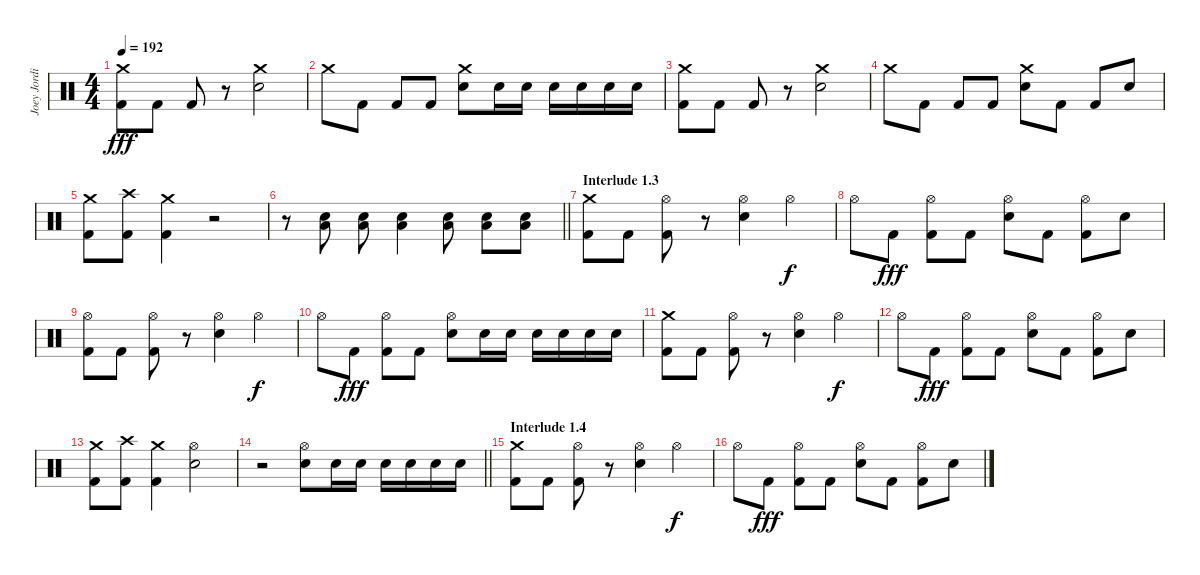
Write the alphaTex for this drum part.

\track ("Joey Jordison" "Joey Jordi") {instrument percussion}
\staff {score}
\articulation defaults
\ts (4 4)
\tempo 192
\clef neutral
\ks c
("Crash medium (hit)" "Kick (hit) 2").8{dy fff} "Kick (hit) 2".8 "Kick (hit) 2".8 r.8 ("Crash medium (hit)" "Electric Snare (hit)").2 |
"Crash medium (hit)".8 "Kick (hit) 2".8 "Kick (hit) 2".8 "Kick (hit) 2".8 ("Crash medium (hit)" "Electric Snare (hit)").8 "Electric Snare (hit)".16 "Electric Snare (hit)".16 "Electric Snare (hit)".16 "Electric Snare (hit)".16 "Electric Snare (hit)".16 "Electric Snare (hit)".16 |
("Crash medium (hit)" "Kick (hit) 2").8 "Kick (hit) 2".8 "Kick (hit) 2".8 r.8 ("Crash medium (hit)" "Electric Snare (hit)").2 |
"Crash medium (hit)".8 "Kick (hit) 2".8 "Kick (hit) 2".8 "Kick (hit) 2".8 ("Crash medium (hit)" "Electric Snare (hit)").8 "Kick (hit) 2".8 "Kick (hit) 2".8 "Electric Snare (hit)".8 |
("Crash medium (hit)" "Kick (hit) 2").8 ("Crash high (hit)" "Kick (hit) 2").8 ("Crash medium (hit)" "Kick (hit) 2").4 r.2 |
\barLineRight lightlight
r.8 ("Electric Snare (hit)" "Low Floor Tom (hit)").8 ("Electric Snare (hit)" "Low Floor Tom (hit)").8 ("Electric Snare (hit)" "Low Floor Tom (hit)").4 ("Electric Snare (hit)" "Low Floor Tom (hit)").8 ("Electric Snare (hit)" "Low Floor Tom (hit)").8 ("Electric Snare (hit)" "Low Floor Tom (hit)").8 |
\section ("" "Interlude 1.3")
("Crash medium (hit)" "Kick (hit) 2").8 "Kick (hit) 2".8 ("Hi-Hat (open)" "Kick (hit) 2").8 r.8 ("Hi-Hat (open)" "Electric Snare (hit)").4 "Hi-Hat (open)".4{dy f} |
"Hi-Hat (open)".8 "Kick (hit) 2".8{dy fff} ("Hi-Hat (open)" "Kick (hit) 2").8 "Kick (hit) 2".8 ("Hi-Hat (open)" "Electric Snare (hit)").8 "Kick (hit) 2".8 ("Hi-Hat (open)" "Kick (hit) 2").8 "Electric Snare (hit)".8 |
("Hi-Hat (open)" "Kick (hit) 2").8 "Kick (hit) 2".8 ("Hi-Hat (open)" "Kick (hit) 2").8 r.8 ("Hi-Hat (open)" "Electric Snare (hit)").4 "Hi-Hat (open)".4{dy f} |
"Hi-Hat (open)".8 "Kick (hit) 2".8{dy fff} ("Hi-Hat (open)" "Kick (hit) 2").8 "Kick (hit) 2".8 ("Hi-Hat (open)" "Electric Snare (hit)").8 "Electric Snare (hit)".16 "Electric Snare (hit)".16 "Electric Snare (hit)".16 "Electric Snare (hit)".16 "Electric Snare (hit)".16 "Electric Snare (hit)".16 |
("Crash medium (hit)" "Kick (hit) 2").8 "Kick (hit) 2".8 ("Hi-Hat (open)" "Kick (hit) 2").8 r.8 ("Hi-Hat (open)" "Electric Snare (hit)").4 "Hi-Hat (open)".4{dy f} |
"Hi-Hat (open)".8 "Kick (hit) 2".8{dy fff} ("Hi-Hat (open)" "Kick (hit) 2").8 "Kick (hit) 2".8 ("Hi-Hat (open)" "Electric Snare (hit)").8 "Kick (hit) 2".8 ("Hi-Hat (open)" "Kick (hit) 2").8 "Electric Snare (hit)".8 |
("Crash medium (hit)" "Kick (hit) 2").8 ("Crash high (hit)" "Kick (hit) 2").8 ("Crash medium (hit)" "Kick (hit) 2").4 ("Hi-Hat (open)" "Electric Snare (hit)").2 |
\barLineRight lightlight
r.2 ("Hi-Hat (open)" "Electric Snare (hit)").8 "Electric Snare (hit)".16 "Electric Snare (hit)".16 "Electric Snare (hit)".16 "Electric Snare (hit)".16 "Electric Snare (hit)".16 "Electric Snare (hit)".16 |
\section ("" "Interlude 1.4")
("Crash medium (hit)" "Kick (hit) 2").8 "Kick (hit) 2".8 ("Hi-Hat (open)" "Kick (hit) 2").8 r.8 ("Hi-Hat (open)" "Electric Snare (hit)").4 "Hi-Hat (open)".4{dy f} |
"Hi-Hat (open)".8 "Kick (hit) 2".8{dy fff} ("Hi-Hat (open)" "Kick (hit) 2").8 "Kick (hit) 2".8 ("Hi-Hat (open)" "Electric Snare (hit)").8 "Kick (hit) 2".8 ("Hi-Hat (open)" "Kick (hit) 2").8 "Electric Snare (hit)".8
